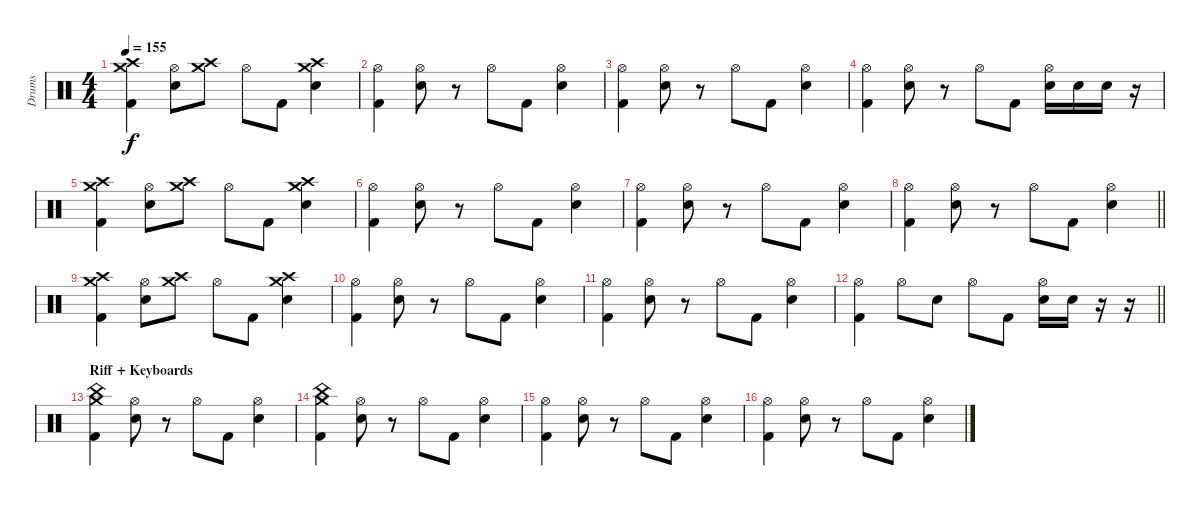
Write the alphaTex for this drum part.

\track ("Drums" "Drums") {instrument percussion}
\staff {score}
\articulation defaults
\ts (4 4)
\tempo 155
\clef neutral
\ks c
("Crash high (hit)" "Crash medium (hit)" "Kick (hit) 2").4{dy f} ("Hi-Hat (open)" "Electric Snare (hit)").8 ("Crash high (hit)" "Crash medium (hit)").8 "Hi-Hat (open)".8 "Kick (hit) 2".8 ("Crash high (hit)" "Crash medium (hit)" "Electric Snare (hit)").4 |
("Hi-Hat (open)" "Kick (hit) 2").4 ("Hi-Hat (open)" "Electric Snare (hit)").8 r.8 "Hi-Hat (open)".8 "Kick (hit) 2".8 ("Hi-Hat (open)" "Electric Snare (hit)").4 |
("Hi-Hat (open)" "Kick (hit) 2").4 ("Hi-Hat (open)" "Electric Snare (hit)").8 r.8 "Hi-Hat (open)".8 "Kick (hit) 2".8 ("Hi-Hat (open)" "Electric Snare (hit)").4 |
("Hi-Hat (open)" "Kick (hit) 2").4 ("Hi-Hat (open)" "Electric Snare (hit)").8 r.8 "Hi-Hat (open)".8 "Kick (hit) 2".8 ("Hi-Hat (open)" "Electric Snare (hit)").16 "Electric Snare (hit)".16 "Electric Snare (hit)".16 r.16 |
("Crash high (hit)" "Crash medium (hit)" "Kick (hit) 2").4 ("Hi-Hat (open)" "Electric Snare (hit)").8 ("Crash high (hit)" "Crash medium (hit)").8 "Hi-Hat (open)".8 "Kick (hit) 2".8 ("Crash high (hit)" "Crash medium (hit)" "Electric Snare (hit)").4 |
("Hi-Hat (open)" "Kick (hit) 2").4 ("Hi-Hat (open)" "Electric Snare (hit)").8 r.8 "Hi-Hat (open)".8 "Kick (hit) 2".8 ("Hi-Hat (open)" "Electric Snare (hit)").4 |
("Hi-Hat (open)" "Kick (hit) 2").4 ("Hi-Hat (open)" "Electric Snare (hit)").8 r.8 "Hi-Hat (open)".8 "Kick (hit) 2".8 ("Hi-Hat (open)" "Electric Snare (hit)").4 |
\barLineRight lightlight
("Hi-Hat (open)" "Kick (hit) 2").4 ("Hi-Hat (open)" "Electric Snare (hit)").8 r.8 "Hi-Hat (open)".8 "Kick (hit) 2".8 ("Hi-Hat (open)" "Electric Snare (hit)").4 |
("Crash high (hit)" "Crash medium (hit)" "Kick (hit) 2").4 ("Hi-Hat (open)" "Electric Snare (hit)").8 ("Crash high (hit)" "Crash medium (hit)").8 "Hi-Hat (open)".8 "Kick (hit) 2".8 ("Crash high (hit)" "Crash medium (hit)" "Electric Snare (hit)").4 |
("Hi-Hat (open)" "Kick (hit) 2").4 ("Hi-Hat (open)" "Electric Snare (hit)").8 r.8 "Hi-Hat (open)".8 "Kick (hit) 2".8 ("Hi-Hat (open)" "Electric Snare (hit)").4 |
("Hi-Hat (open)" "Kick (hit) 2").4 ("Hi-Hat (open)" "Electric Snare (hit)").8 r.8 "Hi-Hat (open)".8 "Kick (hit) 2".8 ("Hi-Hat (open)" "Electric Snare (hit)").4 |
\barLineRight lightlight
("Hi-Hat (open)" "Kick (hit) 2").4 "Hi-Hat (open)".8 "Electric Snare (hit)".8 "Hi-Hat (open)".8 "Kick (hit) 2".8 ("Hi-Hat (open)" "Electric Snare (hit)").16 "Electric Snare (hit)".16 r.16 r.16 |
\section ("" "Riff + Keyboards")
("Crash medium (hit)" "China (hit)" "Kick (hit) 2").4 ("Hi-Hat (open)" "Electric Snare (hit)").8 r.8 "Hi-Hat (open)".8 "Kick (hit) 2".8 ("Hi-Hat (open)" "Electric Snare (hit)").4 |
("Crash medium (hit)" "China (hit)" "Kick (hit) 2").4 ("Hi-Hat (open)" "Electric Snare (hit)").8 r.8 "Hi-Hat (open)".8 "Kick (hit) 2".8 ("Hi-Hat (open)" "Electric Snare (hit)").4 |
("Hi-Hat (open)" "Kick (hit) 2").4 ("Hi-Hat (open)" "Electric Snare (hit)").8 r.8 "Hi-Hat (open)".8 "Kick (hit) 2".8 ("Hi-Hat (open)" "Electric Snare (hit)").4 |
("Hi-Hat (open)" "Kick (hit) 2").4 ("Hi-Hat (open)" "Electric Snare (hit)").8 r.8 "Hi-Hat (open)".8 "Kick (hit) 2".8 ("Hi-Hat (open)" "Electric Snare (hit)").4
